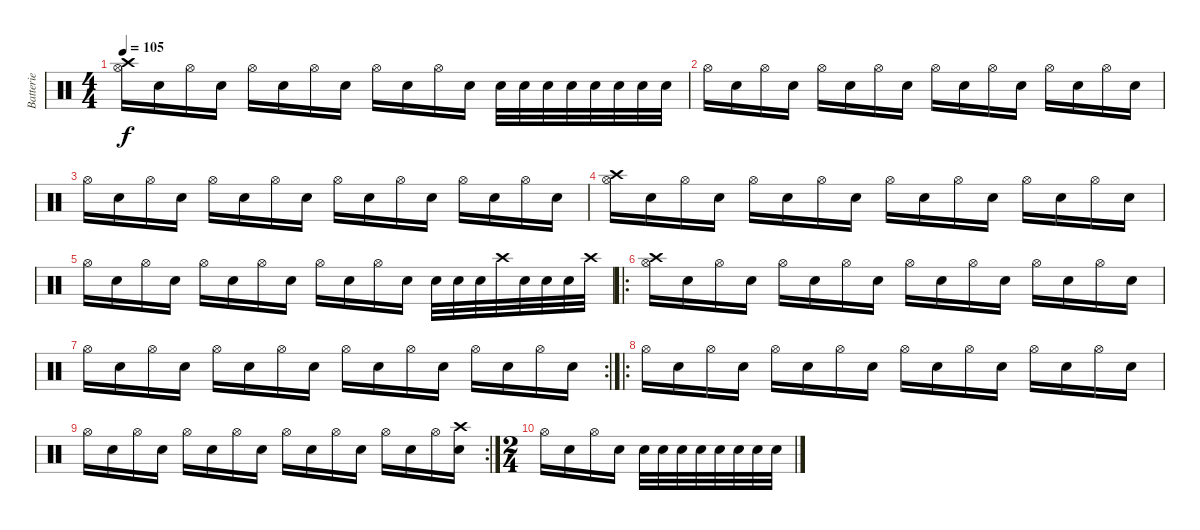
\track ("Batterie" "Batterie") {instrument percussion}
\staff {score}
\articulation defaults
\ts (4 4)
\tempo 105
\clef neutral
\ks c
("Crash high (hit)" "Hi-Hat (open)").16{dy f} "Snare (hit) 2".16 "Hi-Hat (open)".16 "Snare (hit) 2".16 "Hi-Hat (open)".16 "Snare (hit) 2".16 "Hi-Hat (open)".16 "Snare (hit) 2".16 "Hi-Hat (open)".16 "Snare (hit) 2".16 "Hi-Hat (open)".16 "Snare (hit) 2".16 "Electric Snare (hit)".32 "Electric Snare (hit)".32 "Electric Snare (hit)".32 "Electric Snare (hit)".32 "Electric Snare (hit)".32 "Electric Snare (hit)".32 "Electric Snare (hit)".32 "Electric Snare (hit)".32 |
"Hi-Hat (open)".16 "Snare (hit) 2".16 "Hi-Hat (open)".16 "Snare (hit) 2".16 "Hi-Hat (open)".16 "Snare (hit) 2".16 "Hi-Hat (open)".16 "Snare (hit) 2".16 "Hi-Hat (open)".16 "Snare (hit) 2".16 "Hi-Hat (open)".16 "Snare (hit) 2".16 "Hi-Hat (open)".16 "Snare (hit) 2".16 "Hi-Hat (open)".16 "Snare (hit) 2".16 |
"Hi-Hat (open)".16 "Snare (hit) 2".16 "Hi-Hat (open)".16 "Snare (hit) 2".16 "Hi-Hat (open)".16 "Snare (hit) 2".16 "Hi-Hat (open)".16 "Snare (hit) 2".16 "Hi-Hat (open)".16 "Snare (hit) 2".16 "Hi-Hat (open)".16 "Snare (hit) 2".16 "Hi-Hat (open)".16 "Snare (hit) 2".16 "Hi-Hat (open)".16 "Snare (hit) 2".16 |
("Crash high (hit)" "Hi-Hat (open)").16 "Snare (hit) 2".16 "Hi-Hat (open)".16 "Snare (hit) 2".16 "Hi-Hat (open)".16 "Snare (hit) 2".16 "Hi-Hat (open)".16 "Snare (hit) 2".16 "Hi-Hat (open)".16 "Snare (hit) 2".16 "Hi-Hat (open)".16 "Snare (hit) 2".16 "Hi-Hat (open)".16 "Snare (hit) 2".16 "Hi-Hat (open)".16 "Snare (hit) 2".16 |
"Hi-Hat (open)".16 "Snare (hit) 2".16 "Hi-Hat (open)".16 "Snare (hit) 2".16 "Hi-Hat (open)".16 "Snare (hit) 2".16 "Hi-Hat (open)".16 "Snare (hit) 2".16 "Hi-Hat (open)".16 "Snare (hit) 2".16 "Hi-Hat (open)".16 "Snare (hit) 2".16 "Electric Snare (hit)".32 "Electric Snare (hit)".32 "Electric Snare (hit)".32 "Crash high (hit)".32 "Electric Snare (hit)".32 "Electric Snare (hit)".32 "Electric Snare (hit)".32 "Crash high (hit)".32 |
\ro
("Crash high (hit)" "Hi-Hat (open)").16 "Snare (hit) 2".16 "Hi-Hat (open)".16 "Snare (hit) 2".16 "Hi-Hat (open)".16 "Snare (hit) 2".16 "Hi-Hat (open)".16 "Snare (hit) 2".16 "Hi-Hat (open)".16 "Snare (hit) 2".16 "Hi-Hat (open)".16 "Snare (hit) 2".16 "Hi-Hat (open)".16 "Snare (hit) 2".16 "Hi-Hat (open)".16 "Snare (hit) 2".16 |
\rc 2 "Hi-Hat (open)".16 "Snare (hit) 2".16 "Hi-Hat (open)".16 "Snare (hit) 2".16 "Hi-Hat (open)".16 "Snare (hit) 2".16 "Hi-Hat (open)".16 "Snare (hit) 2".16 "Hi-Hat (open)".16 "Snare (hit) 2".16 "Hi-Hat (open)".16 "Snare (hit) 2".16 "Hi-Hat (open)".16 "Snare (hit) 2".16 "Hi-Hat (open)".16 "Snare (hit) 2".16
|
\ro "Hi-Hat (open)".16 "Snare (hit) 2".16 "Hi-Hat (open)".16 "Snare (hit) 2".16 "Hi-Hat (open)".16 "Snare (hit) 2".16 "Hi-Hat (open)".16 "Snare (hit) 2".16 "Hi-Hat (open)".16 "Snare (hit) 2".16 "Hi-Hat (open)".16 "Snare (hit) 2".16 "Hi-Hat (open)".16 "Snare (hit) 2".16 "Hi-Hat (open)".16 "Snare (hit) 2".16
|
\rc 2 "Hi-Hat (open)".16 "Snare (hit) 2".16 "Hi-Hat (open)".16 "Snare (hit) 2".16 "Hi-Hat (open)".16 "Snare (hit) 2".16 "Hi-Hat (open)".16 "Snare (hit) 2".16 "Hi-Hat (open)".16 "Snare (hit) 2".16 "Hi-Hat (open)".16 "Snare (hit) 2".16 "Hi-Hat (open)".16 "Snare (hit) 2".16 "Hi-Hat (open)".16
("Crash high (hit)" "Snare (hit) 2").16 |
\ts (2 4)
"Hi-Hat (open)".16 "Snare (hit) 2".16 "Hi-Hat (open)".16 "Snare (hit) 2".16 "Electric Snare (hit)".32 "Electric Snare (hit)".32 "Electric Snare (hit)".32 "Electric Snare (hit)".32 "Electric Snare (hit)".32 "Electric Snare (hit)".32 "Electric Snare (hit)".32 "Electric Snare (hit)".32
